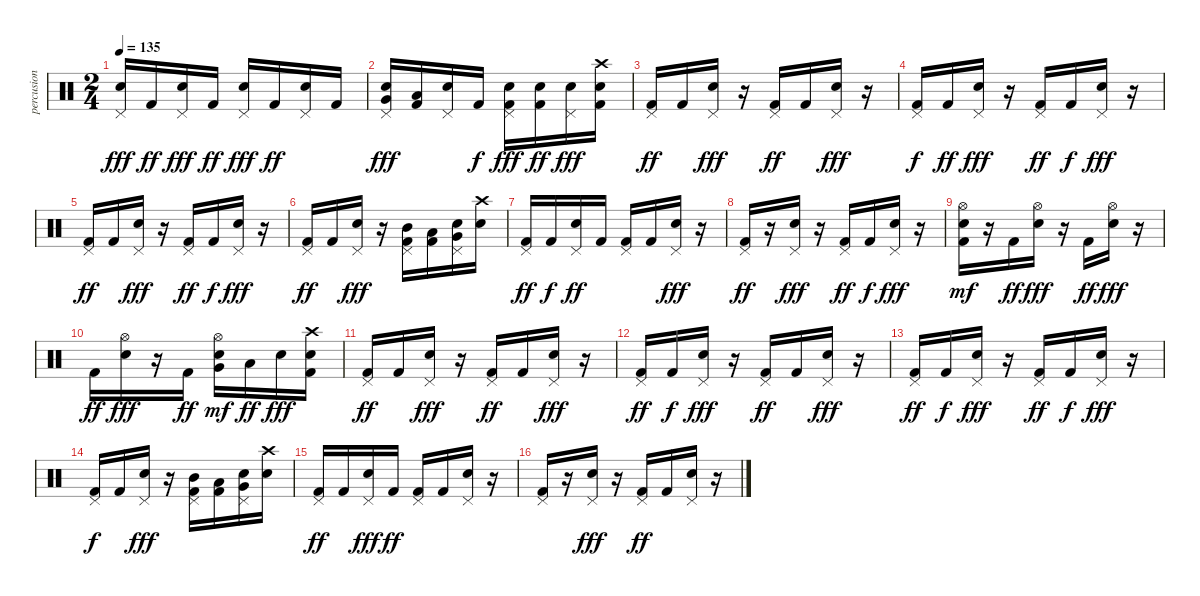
\track ("percusion" "percusion") {instrument percussion}
\staff {score}
\articulation defaults
\ts (2 4)
\tempo 135
\clef neutral
\ks c
("Electric Snare (hit)" "Pedal Hi-Hat (hit)").16{dy fff} "Kick (hit) 2".16{dy ff} ("Electric Snare (hit)" "Pedal Hi-Hat (hit)").16{dy fff} "Kick (hit) 2".16{dy ff} ("Electric Snare (hit)" "Pedal Hi-Hat (hit)").16{dy fff} "Kick (hit) 2".16{dy ff} ("Electric Snare (hit)" "Pedal Hi-Hat (hit)").16 "Kick (hit) 2".16 |
("Electric Snare (hit)" "Very Low Tom (hit)" "Pedal Hi-Hat (hit)").16{dy fff} ("Kick (hit) 2" "Low Floor Tom (hit)").16 ("Electric Snare (hit)" "Pedal Hi-Hat (hit)").16 "Kick (hit) 2".16{dy f} ("Kick (hit) 2" "Electric Snare (hit)" "Pedal Hi-Hat (hit)").16{dy fff} ("Kick (hit) 2" "Electric Snare (hit)").16{dy ff} ("Electric Snare (hit)" "Pedal Hi-Hat (hit)").16{dy fff} ("Kick (hit) 2" "Electric Snare (hit)" "Crash high (hit)").16 |
("Kick (hit) 2" "Pedal Hi-Hat (hit)").16{dy ff} "Kick (hit) 2".16 ("Electric Snare (hit)" "Pedal Hi-Hat (hit)").16{dy fff} r.16 ("Kick (hit) 2" "Pedal Hi-Hat (hit)").16{dy ff} "Kick (hit) 2".16 ("Electric Snare (hit)" "Pedal Hi-Hat (hit)").16{dy fff} r.16 |
("Kick (hit) 2" "Pedal Hi-Hat (hit)").16{dy f} "Kick (hit) 2".16{dy ff} ("Electric Snare (hit)" "Pedal Hi-Hat (hit)").16{dy fff} r.16 ("Kick (hit) 2" "Pedal Hi-Hat (hit)").16{dy ff} "Kick (hit) 2".16{dy f} ("Electric Snare (hit)" "Pedal Hi-Hat (hit)").16{dy fff} r.16 |
("Kick (hit) 2" "Pedal Hi-Hat (hit)").16{dy ff} "Kick (hit) 2".16 ("Electric Snare (hit)" "Pedal Hi-Hat (hit)").16{dy fff} r.16 ("Kick (hit) 2" "Pedal Hi-Hat (hit)").16{dy ff} "Kick (hit) 2".16{dy f} ("Electric Snare (hit)" "Pedal Hi-Hat (hit)").16{dy fff} r.16 |
("Kick (hit) 2" "Pedal Hi-Hat (hit)").16{dy ff} "Kick (hit) 2".16 ("Electric Snare (hit)" "Pedal Hi-Hat (hit)").16{dy fff} r.16 ("Kick (hit) 2" "Mid Tom (hit)" "Pedal Hi-Hat (hit)").16 ("Kick (hit) 2" "Low Tom (hit)").16 ("Electric Snare (hit)" "Very Low Tom (hit)" "Pedal Hi-Hat (hit)").16 ("Electric Snare (hit)" "Crash high (hit)").16 |
("Kick (hit) 2" "Pedal Hi-Hat (hit)").16{dy ff} "Kick (hit) 2".16{dy f} ("Electric Snare (hit)" "Pedal Hi-Hat (hit)").16{dy ff} "Kick (hit) 2".16 ("Kick (hit) 2" "Pedal Hi-Hat (hit)").16 "Kick (hit) 2".16 ("Electric Snare (hit)" "Pedal Hi-Hat (hit)").16{dy fff} r.16 |
("Kick (hit) 2" "Pedal Hi-Hat (hit)").16{dy ff} r.16 ("Electric Snare (hit)" "Pedal Hi-Hat (hit)").16{dy fff} r.16 ("Kick (hit) 2" "Pedal Hi-Hat (hit)").16{dy ff} "Kick (hit) 2".16{dy f} ("Electric Snare (hit)" "Pedal Hi-Hat (hit)").16{dy fff} r.16 |
("Kick (hit) 2" "Electric Snare (hit)" "Hi-Hat (open)").16{dy mf} r.16 "Kick (hit) 2".16{dy ff} ("Electric Snare (hit)" "Hi-Hat (open)").16{dy fff} r.16 "Kick (hit) 2".16{dy ff} ("Electric Snare (hit)" "Hi-Hat (open)").16{dy fff} r.16 |
"Kick (hit) 2".16{dy ff} ("Electric Snare (hit)" "Hi-Hat (open)").16{dy fff} r.16 "Kick (hit) 2".16{dy ff} ("Electric Snare (hit)" "Very Low Tom (hit)" "Hi-Hat (open)").16{dy mf} "Low Floor Tom (hit)".16{dy ff} "Electric Snare (hit)".16{dy fff} ("Kick (hit) 2" "Electric Snare (hit)" "Crash high (hit)").16 |
("Kick (hit) 2" "Pedal Hi-Hat (hit)").16{dy ff} "Kick (hit) 2".16 ("Electric Snare (hit)" "Pedal Hi-Hat (hit)").16{dy fff} r.16 ("Kick (hit) 2" "Pedal Hi-Hat (hit)").16{dy ff} "Kick (hit) 2".16 ("Electric Snare (hit)" "Pedal Hi-Hat (hit)").16{dy fff} r.16 |
("Kick (hit) 2" "Pedal Hi-Hat (hit)").16{dy ff} "Kick (hit) 2".16{dy f} ("Electric Snare (hit)" "Pedal Hi-Hat (hit)").16{dy fff} r.16 ("Kick (hit) 2" "Pedal Hi-Hat (hit)").16{dy ff} "Kick (hit) 2".16 ("Electric Snare (hit)" "Pedal Hi-Hat (hit)").16{dy fff} r.16 |
("Kick (hit) 2" "Pedal Hi-Hat (hit)").16{dy ff} "Kick (hit) 2".16{dy f} ("Electric Snare (hit)" "Pedal Hi-Hat (hit)").16{dy fff} r.16 ("Kick (hit) 2" "Pedal Hi-Hat (hit)").16{dy ff} "Kick (hit) 2".16{dy f} ("Electric Snare (hit)" "Pedal Hi-Hat (hit)").16{dy fff} r.16 |
("Kick (hit) 2" "Pedal Hi-Hat (hit)").16{dy f} "Kick (hit) 2".16 ("Electric Snare (hit)" "Pedal Hi-Hat (hit)").16{dy fff} r.16 ("Kick (hit) 2" "Mid Tom (hit)" "Pedal Hi-Hat (hit)").16 ("Kick (hit) 2" "Low Tom (hit)").16 ("Electric Snare (hit)" "Very Low Tom (hit)" "Pedal Hi-Hat (hit)").16 ("Electric Snare (hit)" "Crash high (hit)").16 |
("Kick (hit) 2" "Pedal Hi-Hat (hit)").16{dy ff} "Kick (hit) 2".16 ("Electric Snare (hit)" "Pedal Hi-Hat (hit)").16{dy fff} "Kick (hit) 2".16{dy ff} ("Kick (hit) 2" "Pedal Hi-Hat (hit)").16 "Kick (hit) 2".16 ("Electric Snare (hit)" "Pedal Hi-Hat (hit)").16 r.16 |
("Kick (hit) 2" "Pedal Hi-Hat (hit)").16 r.16 ("Electric Snare (hit)" "Pedal Hi-Hat (hit)").16{dy fff} r.16 ("Kick (hit) 2" "Pedal Hi-Hat (hit)").16{dy ff} "Kick (hit) 2".16 ("Electric Snare (hit)" "Pedal Hi-Hat (hit)").16 r.16
